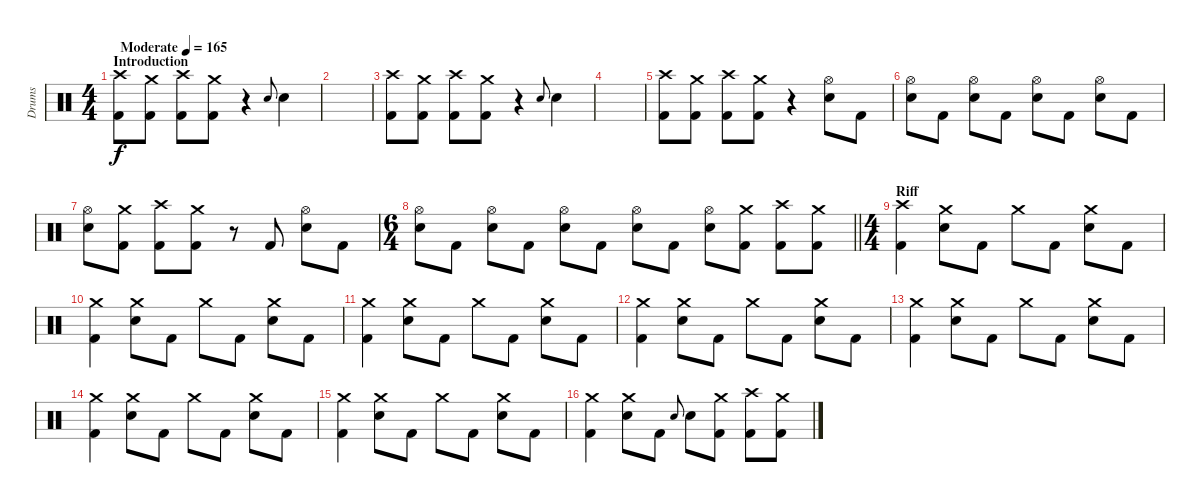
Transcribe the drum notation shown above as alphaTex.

\track ("Drums" "Drums") {instrument percussion}
\staff {score}
\articulation defaults
\ts (4 4)
\section ("" "Introduction")
\tempo (165 "Moderate")
\clef neutral
\ks c
("Crash high (hit)" "Kick (hit) 2").8{dy f} ("Crash medium (hit)" "Kick (hit) 2").8 ("Crash high (hit)" "Kick (hit) 2").8 ("Crash medium (hit)" "Kick (hit) 2").8 r.4 "Electric Snare (hit)".8{gr onbeat} "Electric Snare (hit)".4 |
|
("Crash high (hit)" "Kick (hit) 2").8 ("Crash medium (hit)" "Kick (hit) 2").8 ("Crash high (hit)" "Kick (hit) 2").8 ("Crash medium (hit)" "Kick (hit) 2").8 r.4 "Electric Snare (hit)".8{gr onbeat} "Electric Snare (hit)".4 |
|
("Crash high (hit)" "Kick (hit) 2").8 ("Crash medium (hit)" "Kick (hit) 2").8 ("Crash high (hit)" "Kick (hit) 2").8 ("Crash medium (hit)" "Kick (hit) 2").8 r.4 ("Hi-Hat (open)" "Electric Snare (hit)").8 "Kick (hit) 2".8 |
("Hi-Hat (open)" "Electric Snare (hit)").8 "Kick (hit) 2".8 ("Hi-Hat (open)" "Electric Snare (hit)").8 "Kick (hit) 2".8 ("Hi-Hat (open)" "Electric Snare (hit)").8 "Kick (hit) 2".8 ("Hi-Hat (open)" "Electric Snare (hit)").8 "Kick (hit) 2".8 |
("Hi-Hat (open)" "Electric Snare (hit)").8 ("Crash medium (hit)" "Kick (hit) 2").8 ("Crash high (hit)" "Kick (hit) 2").8 ("Crash medium (hit)" "Kick (hit) 2").8 r.8 "Kick (hit) 2".8 ("Hi-Hat (open)" "Electric Snare (hit)").8 "Kick (hit) 2".8 |
\ts (6 4)
\barLineRight lightlight
("Hi-Hat (open)" "Electric Snare (hit)").8 "Kick (hit) 2".8 ("Hi-Hat (open)" "Electric Snare (hit)").8 "Kick (hit) 2".8 ("Hi-Hat (open)" "Electric Snare (hit)").8 "Kick (hit) 2".8 ("Hi-Hat (open)" "Electric Snare (hit)").8 "Kick (hit) 2".8 ("Hi-Hat (open)" "Electric Snare (hit)").8 ("Crash medium (hit)" "Kick (hit) 2").8 ("Crash high (hit)" "Kick (hit) 2").8 ("Crash medium (hit)" "Kick (hit) 2").8 |
\ts (4 4)
\section ("" "Riff")
("Crash high (hit)" "Kick (hit) 2").4 ("Crash medium (hit)" "Electric Snare (hit)").8 "Kick (hit) 2".8 "Crash medium (hit)".8 "Kick (hit) 2".8 ("Crash medium (hit)" "Electric Snare (hit)").8 "Kick (hit) 2".8 |
("Crash medium (hit)" "Kick (hit) 2").4 ("Crash medium (hit)" "Electric Snare (hit)").8 "Kick (hit) 2".8 "Crash medium (hit)".8 "Kick (hit) 2".8 ("Crash medium (hit)" "Electric Snare (hit)").8 "Kick (hit) 2".8 |
("Crash medium (hit)" "Kick (hit) 2").4 ("Crash medium (hit)" "Electric Snare (hit)").8 "Kick (hit) 2".8 "Crash medium (hit)".8 "Kick (hit) 2".8 ("Crash medium (hit)" "Electric Snare (hit)").8 "Kick (hit) 2".8 |
("Crash medium (hit)" "Kick (hit) 2").4 ("Crash medium (hit)" "Electric Snare (hit)").8 "Kick (hit) 2".8 "Crash medium (hit)".8 "Kick (hit) 2".8 ("Crash medium (hit)" "Electric Snare (hit)").8 "Kick (hit) 2".8 |
("Crash medium (hit)" "Kick (hit) 2").4 ("Crash medium (hit)" "Electric Snare (hit)").8 "Kick (hit) 2".8 "Crash medium (hit)".8 "Kick (hit) 2".8 ("Crash medium (hit)" "Electric Snare (hit)").8 "Kick (hit) 2".8 |
("Crash medium (hit)" "Kick (hit) 2").4 ("Crash medium (hit)" "Electric Snare (hit)").8 "Kick (hit) 2".8 "Crash medium (hit)".8 "Kick (hit) 2".8 ("Crash medium (hit)" "Electric Snare (hit)").8 "Kick (hit) 2".8 |
("Crash medium (hit)" "Kick (hit) 2").4 ("Crash medium (hit)" "Electric Snare (hit)").8 "Kick (hit) 2".8 "Crash medium (hit)".8 "Kick (hit) 2".8 ("Crash medium (hit)" "Electric Snare (hit)").8 "Kick (hit) 2".8 |
("Crash medium (hit)" "Kick (hit) 2").4 ("Crash medium (hit)" "Electric Snare (hit)").8 "Kick (hit) 2".8 "Electric Snare (hit)".8{gr onbeat} "Electric Snare (hit)".8 ("Crash medium (hit)" "Kick (hit) 2").8 ("Crash high (hit)" "Kick (hit) 2").8 ("Crash medium (hit)" "Kick (hit) 2").8
